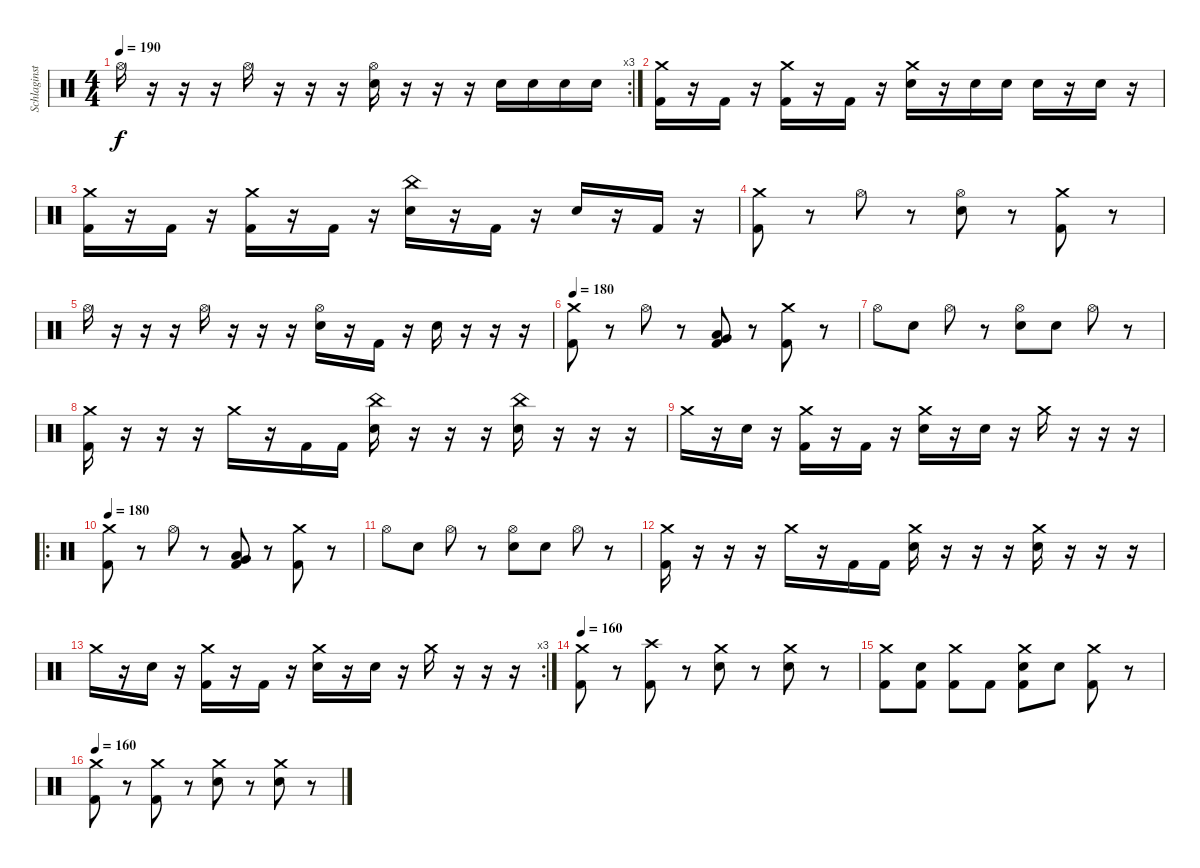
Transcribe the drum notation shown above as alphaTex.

\track ("Schlaginstrumente - Auswahl" "Schlaginst") {instrument percussion}
\staff {score}
\articulation defaults
\rc 3
\ts (4 4)
\tempo 190
\clef neutral
\ks c "Hi-Hat (open)".16{dy f}
r.16 r.16 r.16 "Hi-Hat (open)".16 r.16 r.16 r.16 ("Electric Snare (hit)" "Hi-Hat (open)").16 r.16 r.16 r.16 "Electric Snare (hit)".16 "Electric Snare (hit)".16 "Electric Snare (hit)".16 "Electric Snare (hit)".16 |
("Kick (hit) 2" "Crash medium (hit)").16 r.16 "Kick (hit) 2".16 r.16 ("Kick (hit) 2" "Crash medium (hit)").16 r.16 "Kick (hit) 2".16 r.16 ("Electric Snare (hit)" "Crash medium (hit)").16 r.16 "Electric Snare (hit)".16 "Electric Snare (hit)".16 "Electric Snare (hit)".16 r.16 "Electric Snare (hit)".16 r.16 |
("Kick (hit) 2" "Crash medium (hit)").16 r.16 "Kick (hit) 2".16 r.16 ("Kick (hit) 2" "Crash medium (hit)").16 r.16 "Kick (hit) 2".16 r.16 ("Electric Snare (hit)" "China (hit)").16 r.16 "Kick (hit) 2".16 r.16 "Electric Snare (hit)".16 r.16 "Kick (hit) 2".16 r.16 |
("Kick (hit) 2" "Crash medium (hit)").8 r.8 "Hi-Hat (open)".8 r.8 ("Electric Snare (hit)" "Hi-Hat (open)").8 r.8 ("Kick (hit) 2" "Crash medium (hit)").8 r.8 |
"Hi-Hat (open)".16 r.16 r.16 r.16 "Hi-Hat (open)".16 r.16 r.16 r.16 ("Electric Snare (hit)" "Hi-Hat (open)").16 r.16 "Kick (hit) 2".16 r.16 "Electric Snare (hit)".16 r.16 r.16 r.16 |
\tempo 180
("Kick (hit) 2" "Crash medium (hit)").8 r.8 "Hi-Hat (open)".8 r.8 ("Kick (hit) 2" "Very Low Tom (hit)" "Low Floor Tom (hit)").8 r.8 ("Kick (hit) 2" "Crash medium (hit)").8 r.8 |
"Hi-Hat (open)".8 "Electric Snare (hit)".8 "Hi-Hat (open)".8 r.8 ("Electric Snare (hit)" "Hi-Hat (open)").8 "Electric Snare (hit)".8 "Hi-Hat (open)".8 r.8 |
("Kick (hit) 2" "Crash medium (hit)").16 r.16 r.16 r.16 "Crash medium (hit)".16 r.16 "Kick (hit) 2".16 "Kick (hit) 2".16 ("Electric Snare (hit)" "China (hit)").16 r.16 r.16 r.16 ("Electric Snare (hit)" "China (hit)").16 r.16 r.16 r.16 |
"Crash medium (hit)".16 r.16 "Electric Snare (hit)".16 r.16 ("Kick (hit) 2" "Crash medium (hit)").16 r.16 "Kick (hit) 2".16 r.16 ("Electric Snare (hit)" "Crash medium (hit)").16 r.16 "Electric Snare (hit)".16 r.16 "Crash medium (hit)".16 r.16 r.16 r.16 |
\ro
\tempo 180
("Kick (hit) 2" "Crash medium (hit)").8 r.8 "Hi-Hat (open)".8 r.8 ("Kick (hit) 2" "Very Low Tom (hit)" "Low Floor Tom (hit)").8 r.8 ("Kick (hit) 2" "Crash medium (hit)").8 r.8 |
"Hi-Hat (open)".8 "Electric Snare (hit)".8 "Hi-Hat (open)".8 r.8 ("Electric Snare (hit)" "Hi-Hat (open)").8 "Electric Snare (hit)".8 "Hi-Hat (open)".8 r.8 |
("Kick (hit) 2" "Crash medium (hit)").16 r.16 r.16 r.16 "Crash medium (hit)".16 r.16 "Kick (hit) 2".16 "Kick (hit) 2".16 ("Electric Snare (hit)" "Crash medium (hit)").16 r.16 r.16 r.16 ("Electric Snare (hit)" "Crash medium (hit)").16 r.16 r.16 r.16 |
\rc 3 "Crash medium (hit)".16
r.16 "Electric Snare (hit)".16 r.16 ("Kick (hit) 2" "Crash medium (hit)").16 r.16 "Kick (hit) 2".16 r.16 ("Electric Snare (hit)" "Crash medium (hit)").16 r.16 "Electric Snare (hit)".16 r.16 "Crash medium (hit)".16 r.16 r.16 r.16 |
\tempo 165
\tempo 160
("Kick (hit) 2" "Crash medium (hit)").8 r.8 ("Kick (hit) 2" "Crash high (hit)").8 r.8 ("Electric Snare (hit)" "Crash medium (hit)").8 r.8 ("Electric Snare (hit)" "Crash medium (hit)").8 r.8 |
("Kick (hit) 2" "Crash medium (hit)").8 ("Kick (hit) 2" "Electric Snare (hit)").8 ("Kick (hit) 2" "Crash medium (hit)").8 "Kick (hit) 2".8 ("Kick (hit) 2" "Electric Snare (hit)" "Crash medium (hit)").8 "Electric Snare (hit)".8 ("Kick (hit) 2" "Crash medium (hit)").8 r.8 |
\tempo 160
("Kick (hit) 2" "Crash medium (hit)").8 r.8 ("Kick (hit) 2" "Crash medium (hit)").8 r.8 ("Electric Snare (hit)" "Crash medium (hit)").8 r.8 ("Electric Snare (hit)" "Crash medium (hit)").8 r.8
